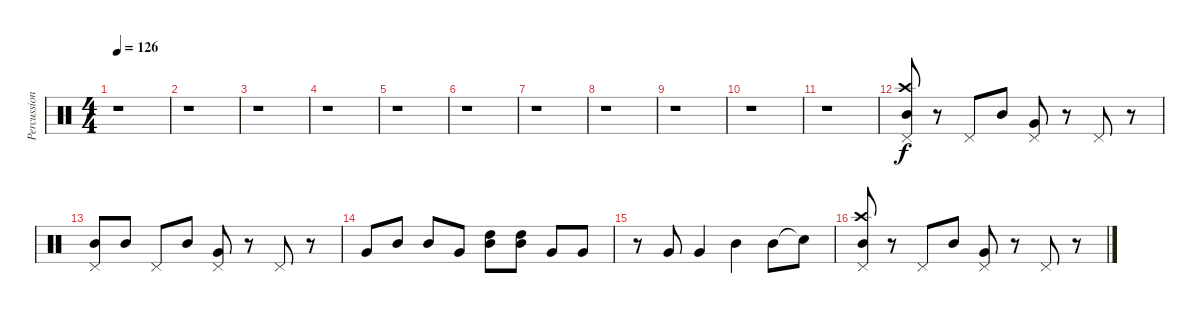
\track ("Percussion" "Percussion") {instrument percussion}
\staff {score}
\articulation defaults
\ts (4 4)
\tempo 126
\clef neutral
\ks c
r.1{dy f} |
r.1 |
r.1 |
r.1 |
r.1 |
r.1 |
r.1 |
r.1 |
r.1 |
r.1 |
r.1 |
("Pedal Hi-Hat (hit)" "Crash high (hit)" "Mid Tom (hit)").8 r.8 "Pedal Hi-Hat (hit)".8 "Mid Tom (hit)".8 ("Pedal Hi-Hat (hit)" "Very Low Tom (hit)").8 r.8 "Pedal Hi-Hat (hit)".8 r.8 |
("Pedal Hi-Hat (hit)" "Mid Tom (hit)").8 "Mid Tom (hit)".8 "Pedal Hi-Hat (hit)".8 "Mid Tom (hit)".8 ("Pedal Hi-Hat (hit)" "Very Low Tom (hit)").8 r.8 "Pedal Hi-Hat (hit)".8 r.8 |
"Very Low Tom (hit)".8 "Mid Tom (hit)".8 "Mid Tom (hit)".8 "Very Low Tom (hit)".8 ("Mid Tom (hit)" "High Tom (hit)").8 ("Mid Tom (hit)" "High Tom (hit)").8 "Very Low Tom (hit)".8 "Very Low Tom (hit)".8 |
r.8 "Very Low Tom (hit)".8 "Very Low Tom (hit)".4 "Mid Tom (hit)".4 "Mid Tom (hit)".8 "Snare (hit)"{t}.8 |
("Pedal Hi-Hat (hit)" "Crash high (hit)" "Mid Tom (hit)").8 r.8 "Pedal Hi-Hat (hit)".8 "Mid Tom (hit)".8 ("Pedal Hi-Hat (hit)" "Very Low Tom (hit)").8 r.8 "Pedal Hi-Hat (hit)".8 r.8
